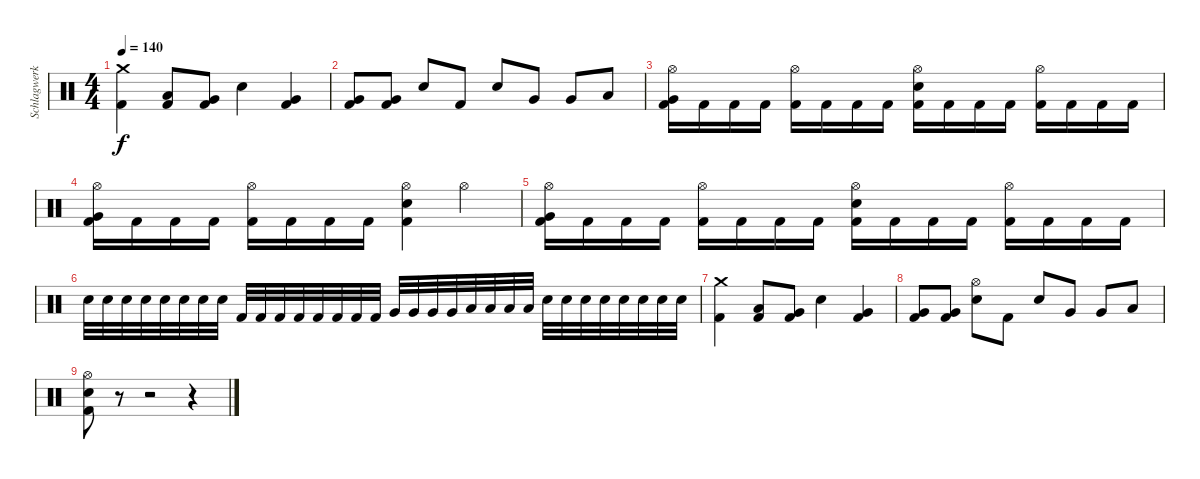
\track ("Schlagwerk" "Schlagwerk") {instrument percussion}
\staff {score}
\articulation defaults
\ts (4 4)
\tempo 140
\clef neutral
\ks c
("Crash medium (hit)" "Kick (hit) 2").4{dy f} ("Low Tom (hit)" "Kick (hit) 2").8 ("Very Low Tom (hit)" "Kick (hit) 2").8 "Snare (hit) 2".4 ("Very Low Tom (hit)" "Kick (hit) 2").4 |
("Very Low Tom (hit)" "Kick (hit) 2").8 ("Very Low Tom (hit)" "Kick (hit) 2").8 "Snare (hit) 2".8 "Kick (hit) 2".8 "Snare (hit) 2".8 "Very Low Tom (hit)".8 "Very Low Tom (hit)".8 "Low Floor Tom (hit)".8 |
("Hi-Hat (open)" "Very Low Tom (hit)" "Kick (hit) 2").16 "Kick (hit) 2".16 "Kick (hit) 2".16 "Kick (hit) 2".16 ("Hi-Hat (open)" "Kick (hit) 2").16 "Kick (hit) 2".16 "Kick (hit) 2".16 "Kick (hit) 2".16 ("Hi-Hat (open)" "Snare (hit) 2" "Kick (hit) 2").16 "Kick (hit) 2".16 "Kick (hit) 2".16 "Kick (hit) 2".16 ("Hi-Hat (open)" "Kick (hit) 2").16 "Kick (hit) 2".16 "Kick (hit) 2".16 "Kick (hit) 2".16 |
("Hi-Hat (open)" "Very Low Tom (hit)" "Kick (hit) 2").16 "Kick (hit) 2".16 "Kick (hit) 2".16 "Kick (hit) 2".16 ("Hi-Hat (open)" "Kick (hit) 2").16 "Kick (hit) 2".16 "Kick (hit) 2".16 "Kick (hit) 2".16 ("Hi-Hat (open)" "Snare (hit) 2" "Kick (hit) 2").4 "Hi-Hat (open)".4 |
("Hi-Hat (open)" "Very Low Tom (hit)" "Kick (hit) 2").16 "Kick (hit) 2".16 "Kick (hit) 2".16 "Kick (hit) 2".16 ("Hi-Hat (open)" "Kick (hit) 2").16 "Kick (hit) 2".16 "Kick (hit) 2".16 "Kick (hit) 2".16 ("Hi-Hat (open)" "Snare (hit) 2" "Kick (hit) 2").16 "Kick (hit) 2".16 "Kick (hit) 2".16 "Kick (hit) 2".16 ("Hi-Hat (open)" "Kick (hit) 2").16 "Kick (hit) 2".16 "Kick (hit) 2".16 "Kick (hit) 2".16 |
"Snare (hit) 2".32 "Snare (hit) 2".32 "Snare (hit) 2".32 "Snare (hit) 2".32 "Snare (hit) 2".32 "Snare (hit) 2".32 "Snare (hit) 2".32 "Snare (hit) 2".32 "Kick (hit) 2".32 "Kick (hit) 2".32 "Kick (hit) 2".32 "Kick (hit) 2".32 "Kick (hit) 2".32 "Kick (hit) 2".32 "Kick (hit) 2".32 "Kick (hit) 2".32 "Very Low Tom (hit)".32 "Very Low Tom (hit)".32 "Very Low Tom (hit)".32 "Very Low Tom (hit)".32 "Low Tom (hit)".32 "Low Tom (hit)".32 "Low Tom (hit)".32 "Low Tom (hit)".32 "Snare (hit) 2".32 "Snare (hit) 2".32 "Snare (hit) 2".32 "Snare (hit) 2".32 "Snare (hit) 2".32 "Snare (hit) 2".32 "Snare (hit) 2".32 "Snare (hit) 2".32 |
("Crash medium (hit)" "Kick (hit) 2").4 ("Low Tom (hit)" "Kick (hit) 2").8 ("Very Low Tom (hit)" "Kick (hit) 2").8 "Snare (hit) 2".4 ("Very Low Tom (hit)" "Kick (hit) 2").4 |
("Very Low Tom (hit)" "Kick (hit) 2").8 ("Very Low Tom (hit)" "Kick (hit) 2").8 ("Hi-Hat (open)" "Snare (hit) 2").8 "Kick (hit) 2".8 "Snare (hit) 2".8 "Very Low Tom (hit)".8 "Very Low Tom (hit)".8 "Low Floor Tom (hit)".8 |
("Hi-Hat (open)" "Snare (hit) 2" "Kick (hit) 2").8 r.8 r.2 r.4
